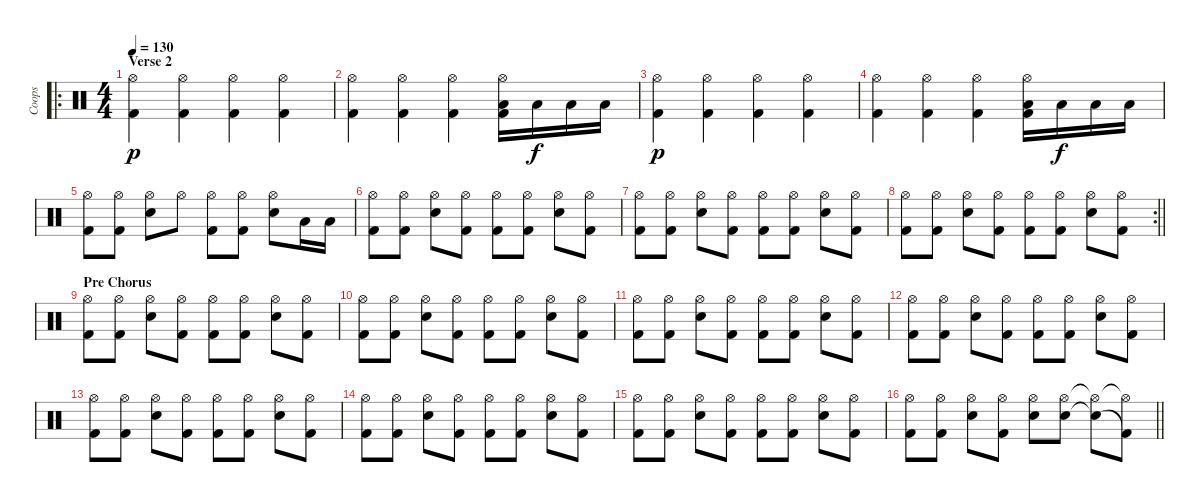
\track ("Coops" "Coops") {instrument percussion}
\staff {score}
\articulation defaults
\ro
\ts (4 4)
\section ("" "Verse 2")
\tempo 130
\clef neutral
\ks c
("Hi-Hat (open)" "Kick (hit) 2").4{dy p} ("Hi-Hat (open)" "Kick (hit) 2").4 ("Hi-Hat (open)" "Kick (hit) 2").4 ("Hi-Hat (open)" "Kick (hit) 2").4 |
("Hi-Hat (open)" "Kick (hit) 2").4 ("Hi-Hat (open)" "Kick (hit) 2").4 ("Hi-Hat (open)" "Kick (hit) 2").4 ("Hi-Hat (open)" "Low Floor Tom (hit)" "Kick (hit) 2").16 "Low Floor Tom (hit)".16{dy f} "Low Floor Tom (hit)".16 "Low Floor Tom (hit)".16 |
("Hi-Hat (open)" "Kick (hit) 2").4{dy p} ("Hi-Hat (open)" "Kick (hit) 2").4 ("Hi-Hat (open)" "Kick (hit) 2").4 ("Hi-Hat (open)" "Kick (hit) 2").4 |
("Hi-Hat (open)" "Kick (hit) 2").4 ("Hi-Hat (open)" "Kick (hit) 2").4 ("Hi-Hat (open)" "Kick (hit) 2").4 ("Hi-Hat (open)" "Low Floor Tom (hit)" "Kick (hit) 2").16 "Low Floor Tom (hit)".16{dy f} "Low Floor Tom (hit)".16 "Low Floor Tom (hit)".16 |
("Hi-Hat (open)" "Kick (hit) 2").8 ("Hi-Hat (open)" "Kick (hit) 2").8 ("Hi-Hat (open)" "Snare (hit) 2").8 "Hi-Hat (open)".8 ("Hi-Hat (open)" "Kick (hit) 2").8 ("Hi-Hat (open)" "Kick (hit) 2").8 ("Hi-Hat (open)" "Snare (hit) 2").8 "Low Floor Tom (hit)".16 "Low Floor Tom (hit)".16 |
("Hi-Hat (open)" "Kick (hit) 2").8 ("Hi-Hat (open)" "Kick (hit) 2").8 ("Hi-Hat (open)" "Snare (hit) 2").8 ("Hi-Hat (open)" "Kick (hit) 2").8 ("Hi-Hat (open)" "Kick (hit) 2").8 ("Hi-Hat (open)" "Kick (hit) 2").8 ("Hi-Hat (open)" "Snare (hit) 2").8 ("Hi-Hat (open)" "Kick (hit) 2").8 |
("Hi-Hat (open)" "Kick (hit) 2").8 ("Hi-Hat (open)" "Kick (hit) 2").8 ("Hi-Hat (open)" "Snare (hit) 2").8 ("Hi-Hat (open)" "Kick (hit) 2").8 ("Hi-Hat (open)" "Kick (hit) 2").8 ("Hi-Hat (open)" "Kick (hit) 2").8 ("Hi-Hat (open)" "Snare (hit) 2").8 ("Hi-Hat (open)" "Kick (hit) 2").8 |
\rc 2
\barLineRight lightlight
("Hi-Hat (open)" "Kick (hit) 2").8 ("Hi-Hat (open)" "Kick (hit) 2").8 ("Hi-Hat (open)" "Snare (hit) 2").8 ("Hi-Hat (open)" "Kick (hit) 2").8 ("Hi-Hat (open)" "Kick (hit) 2").8 ("Hi-Hat (open)" "Kick (hit) 2").8 ("Hi-Hat (open)" "Snare (hit) 2").8 ("Hi-Hat (open)" "Kick (hit) 2").8 |
\section ("" "Pre Chorus")
("Hi-Hat (open)" "Kick (hit) 2").8 ("Hi-Hat (open)" "Kick (hit) 2").8 ("Hi-Hat (open)" "Snare (hit) 2").8 ("Hi-Hat (open)" "Kick (hit) 2").8 ("Hi-Hat (open)" "Kick (hit) 2").8 ("Hi-Hat (open)" "Kick (hit) 2").8 ("Hi-Hat (open)" "Snare (hit) 2").8 ("Hi-Hat (open)" "Kick (hit) 2").8 |
("Hi-Hat (open)" "Kick (hit) 2").8 ("Hi-Hat (open)" "Kick (hit) 2").8 ("Hi-Hat (open)" "Snare (hit) 2").8 ("Hi-Hat (open)" "Kick (hit) 2").8 ("Hi-Hat (open)" "Kick (hit) 2").8 ("Hi-Hat (open)" "Kick (hit) 2").8 ("Hi-Hat (open)" "Snare (hit) 2").8 ("Hi-Hat (open)" "Kick (hit) 2").8 |
("Hi-Hat (open)" "Kick (hit) 2").8 ("Hi-Hat (open)" "Kick (hit) 2").8 ("Hi-Hat (open)" "Snare (hit) 2").8 ("Hi-Hat (open)" "Kick (hit) 2").8 ("Hi-Hat (open)" "Kick (hit) 2").8 ("Hi-Hat (open)" "Kick (hit) 2").8 ("Hi-Hat (open)" "Snare (hit) 2").8 ("Hi-Hat (open)" "Kick (hit) 2").8 |
("Hi-Hat (open)" "Kick (hit) 2").8 ("Hi-Hat (open)" "Kick (hit) 2").8 ("Hi-Hat (open)" "Snare (hit) 2").8 ("Hi-Hat (open)" "Kick (hit) 2").8 ("Hi-Hat (open)" "Kick (hit) 2").8 ("Hi-Hat (open)" "Kick (hit) 2").8 ("Hi-Hat (open)" "Snare (hit) 2").8 ("Hi-Hat (open)" "Kick (hit) 2").8 |
("Hi-Hat (open)" "Kick (hit) 2").8 ("Hi-Hat (open)" "Kick (hit) 2").8 ("Hi-Hat (open)" "Snare (hit) 2").8 ("Hi-Hat (open)" "Kick (hit) 2").8 ("Hi-Hat (open)" "Kick (hit) 2").8 ("Hi-Hat (open)" "Kick (hit) 2").8 ("Hi-Hat (open)" "Snare (hit) 2").8 ("Hi-Hat (open)" "Kick (hit) 2").8 |
("Hi-Hat (open)" "Kick (hit) 2").8 ("Hi-Hat (open)" "Kick (hit) 2").8 ("Hi-Hat (open)" "Snare (hit) 2").8 ("Hi-Hat (open)" "Kick (hit) 2").8 ("Hi-Hat (open)" "Kick (hit) 2").8 ("Hi-Hat (open)" "Kick (hit) 2").8 ("Hi-Hat (open)" "Snare (hit) 2").8 ("Hi-Hat (open)" "Kick (hit) 2").8 |
("Hi-Hat (open)" "Kick (hit) 2").8 ("Hi-Hat (open)" "Kick (hit) 2").8 ("Hi-Hat (open)" "Snare (hit) 2").8 ("Hi-Hat (open)" "Kick (hit) 2").8 ("Hi-Hat (open)" "Kick (hit) 2").8 ("Hi-Hat (open)" "Kick (hit) 2").8 ("Hi-Hat (open)" "Snare (hit) 2").8 ("Hi-Hat (open)" "Kick (hit) 2").8 |
\barLineRight lightlight
("Hi-Hat (open)" "Kick (hit) 2").8 ("Hi-Hat (open)" "Kick (hit) 2").8 ("Hi-Hat (open)" "Snare (hit) 2").8 ("Hi-Hat (open)" "Kick (hit) 2").8 ("Hi-Hat (open)" "Snare (hit) 2").8 ("Hi-Hat (open)" "Snare (hit) 2").8 ("Hi-Hat (open)"{t} "Snare (hit) 2"{t}).8 ("Hi-Hat (open)"{t} "Kick (hit) 2"{t}).8
